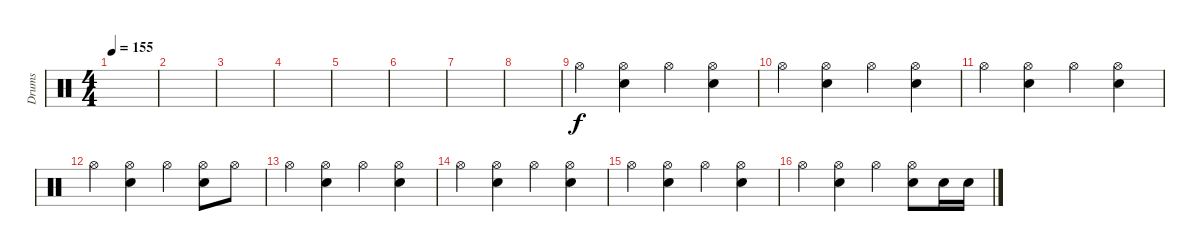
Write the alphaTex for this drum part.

\track ("Drums" "Drums") {instrument percussion}
\staff {score}
\articulation defaults
\ts (4 4)
\tempo 155
\clef neutral
\ks c
|
|
|
|
|
|
|
|
"Hi-Hat (open)".4 ("Hi-Hat (open)" "Electric Snare (hit)").4 "Hi-Hat (open)".4 ("Hi-Hat (open)" "Electric Snare (hit)").4 |
"Hi-Hat (open)".4 ("Hi-Hat (open)" "Electric Snare (hit)").4 "Hi-Hat (open)".4 ("Hi-Hat (open)" "Electric Snare (hit)").4 |
"Hi-Hat (open)".4 ("Hi-Hat (open)" "Electric Snare (hit)").4 "Hi-Hat (open)".4 ("Hi-Hat (open)" "Electric Snare (hit)").4 |
"Hi-Hat (open)".4 ("Hi-Hat (open)" "Electric Snare (hit)").4 "Hi-Hat (open)".4 ("Hi-Hat (open)" "Electric Snare (hit)").8 "Hi-Hat (open)".8 |
"Hi-Hat (open)".4 ("Hi-Hat (open)" "Electric Snare (hit)").4 "Hi-Hat (open)".4 ("Hi-Hat (open)" "Electric Snare (hit)").4 |
"Hi-Hat (open)".4 ("Hi-Hat (open)" "Electric Snare (hit)").4 "Hi-Hat (open)".4 ("Hi-Hat (open)" "Electric Snare (hit)").4 |
"Hi-Hat (open)".4 ("Hi-Hat (open)" "Electric Snare (hit)").4 "Hi-Hat (open)".4 ("Hi-Hat (open)" "Electric Snare (hit)").4 |
"Hi-Hat (open)".4 ("Hi-Hat (open)" "Electric Snare (hit)").4 "Hi-Hat (open)".4 ("Hi-Hat (open)" "Electric Snare (hit)").8 "Electric Snare (hit)".16 "Electric Snare (hit)".16
